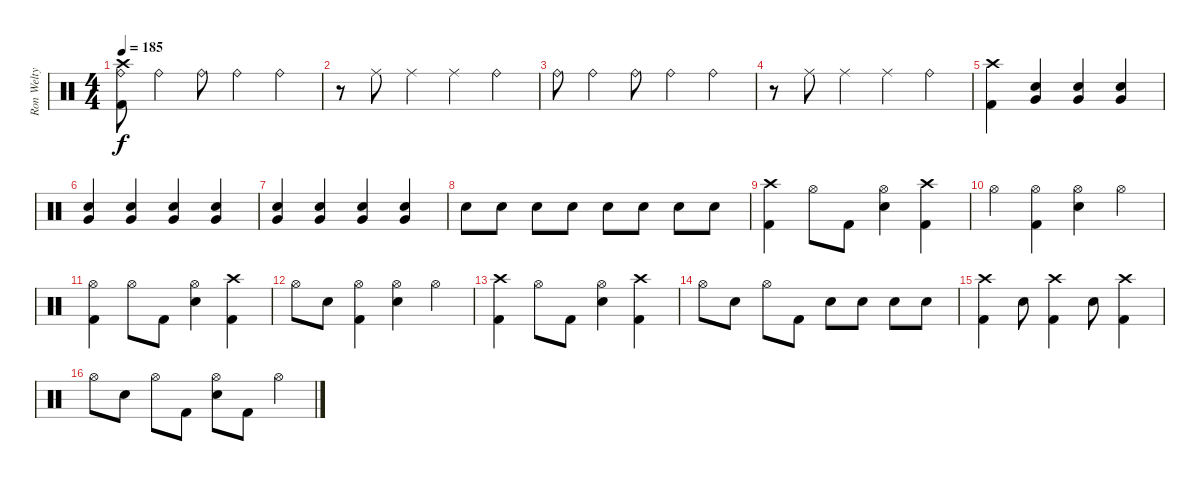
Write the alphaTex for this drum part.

\track ("Ron Welty" "Ron Welty") {instrument percussion}
\staff {score}
\articulation defaults
\ts (4 4)
\tempo 185
\clef neutral
\ks c
("Crash high (hit)" "Ride (bell)" "Kick (hit) 2").8{dy f} "Ride (bell)".4 "Ride (bell)".8 "Ride (bell)".4 "Ride (bell)".4 |
r.8 "Ride (middle)".8 "Ride (middle)".4 "Ride (middle)".4 "Ride (bell)".4 |
"Ride (bell)".8 "Ride (bell)".4 "Ride (bell)".8 "Ride (bell)".4 "Ride (bell)".4 |
r.8 "Ride (middle)".8 "Ride (middle)".4 "Ride (middle)".4 "Ride (bell)".4 |
("Crash high (hit)" "Kick (hit) 2").4 ("Very Low Tom (hit)" "Electric Snare (hit)").4 ("Very Low Tom (hit)" "Electric Snare (hit)").4 ("Very Low Tom (hit)" "Electric Snare (hit)").4 |
("Very Low Tom (hit)" "Electric Snare (hit)").4 ("Very Low Tom (hit)" "Electric Snare (hit)").4 ("Very Low Tom (hit)" "Electric Snare (hit)").4 ("Very Low Tom (hit)" "Electric Snare (hit)").4 |
("Very Low Tom (hit)" "Electric Snare (hit)").4 ("Very Low Tom (hit)" "Electric Snare (hit)").4 ("Very Low Tom (hit)" "Electric Snare (hit)").4 ("Very Low Tom (hit)" "Electric Snare (hit)").4 |
"Electric Snare (hit)".8 "Electric Snare (hit)".8 "Electric Snare (hit)".8 "Electric Snare (hit)".8 "Electric Snare (hit)".8 "Electric Snare (hit)".8 "Electric Snare (hit)".8 "Electric Snare (hit)".8 |
("Crash high (hit)" "Kick (hit) 2").4 "Hi-Hat (open)".8 "Kick (hit) 2".8 ("Hi-Hat (open)" "Electric Snare (hit)").4 ("Crash high (hit)" "Kick (hit) 2").4 |
"Hi-Hat (open)".4 ("Hi-Hat (open)" "Kick (hit) 2").4 ("Hi-Hat (open)" "Electric Snare (hit)").4 "Hi-Hat (open)".4 |
("Hi-Hat (open)" "Kick (hit) 2").4 "Hi-Hat (open)".8 "Kick (hit) 2".8 ("Hi-Hat (open)" "Electric Snare (hit)").4 ("Crash high (hit)" "Kick (hit) 2").4 |
"Hi-Hat (open)".8 "Electric Snare (hit)".8 ("Hi-Hat (open)" "Kick (hit) 2").4 ("Hi-Hat (open)" "Electric Snare (hit)").4 "Hi-Hat (open)".4 |
("Crash high (hit)" "Kick (hit) 2").4 "Hi-Hat (open)".8 "Kick (hit) 2".8 ("Hi-Hat (open)" "Electric Snare (hit)").4 ("Crash high (hit)" "Kick (hit) 2").4 |
"Hi-Hat (open)".8 "Electric Snare (hit)".8 "Hi-Hat (open)".8 "Kick (hit) 2".8 "Electric Snare (hit)".8 "Electric Snare (hit)".8 "Electric Snare (hit)".8 "Electric Snare (hit)".8 |
("Crash high (hit)" "Kick (hit) 2").4 "Electric Snare (hit)".8 ("Crash high (hit)" "Kick (hit) 2").4 "Electric Snare (hit)".8 ("Crash high (hit)" "Kick (hit) 2").4 |
"Hi-Hat (open)".8 "Electric Snare (hit)".8 "Hi-Hat (open)".8 "Kick (hit) 2".8 ("Hi-Hat (open)" "Electric Snare (hit)").8 "Kick (hit) 2".8 "Hi-Hat (open)".4
